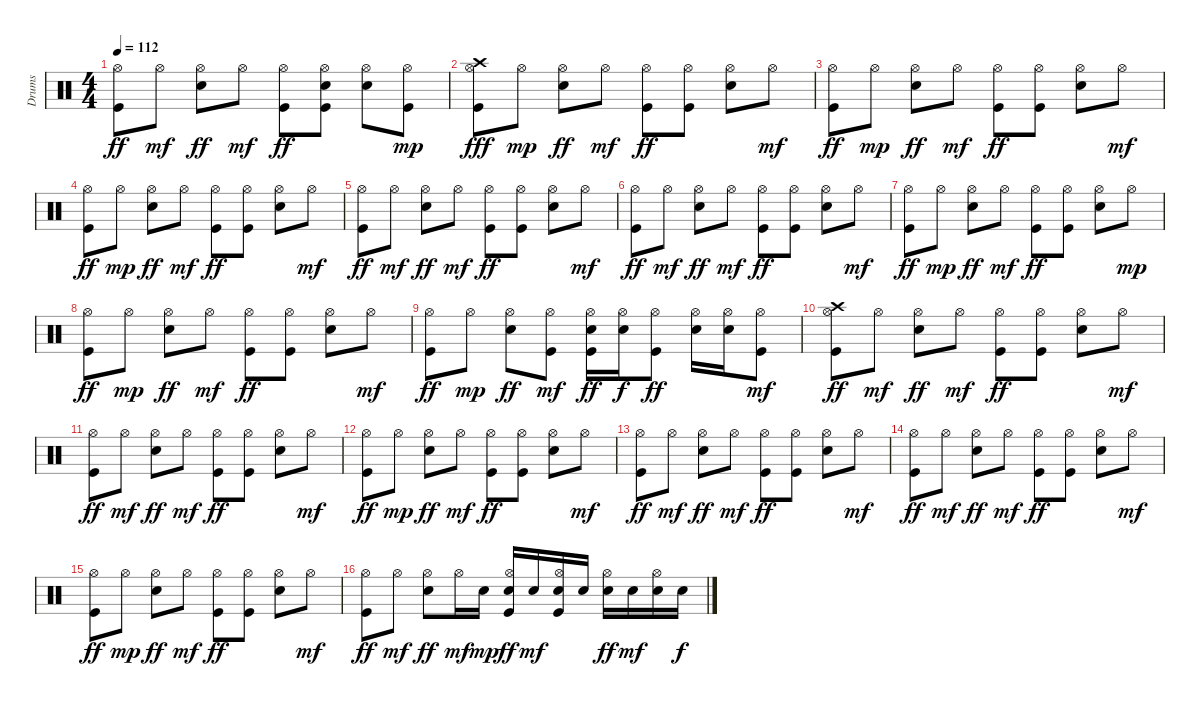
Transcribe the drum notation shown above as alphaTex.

\track ("Drums" "Drums") {instrument percussion}
\staff {score}
\articulation defaults
\ts (4 4)
\tempo 112
\clef neutral
\ks c
("Kick (hit)" "Hi-Hat (open)").8{dy ff} "Hi-Hat (open)".8{dy mf} ("Electric Snare (hit)" "Hi-Hat (open)").8{dy ff} "Hi-Hat (open)".8{dy mf} ("Kick (hit)" "Hi-Hat (open)").8{dy ff} ("Kick (hit)" "Electric Snare (hit)" "Hi-Hat (open)").8 ("Electric Snare (hit)" "Hi-Hat (open)").8 ("Kick (hit)" "Hi-Hat (open)").8{dy mp} |
("Kick (hit)" "Hi-Hat (open)" "Crash high (hit)").8{dy fff} "Hi-Hat (open)".8{dy mp} ("Electric Snare (hit)" "Hi-Hat (open)").8{dy ff} "Hi-Hat (open)".8{dy mf} ("Kick (hit)" "Hi-Hat (open)").8{dy ff} ("Kick (hit)" "Hi-Hat (open)").8 ("Electric Snare (hit)" "Hi-Hat (open)").8 "Hi-Hat (open)".8{dy mf} |
("Kick (hit)" "Hi-Hat (open)").8{dy ff} "Hi-Hat (open)".8{dy mp} ("Electric Snare (hit)" "Hi-Hat (open)").8{dy ff} "Hi-Hat (open)".8{dy mf} ("Kick (hit)" "Hi-Hat (open)").8{dy ff} ("Kick (hit)" "Hi-Hat (open)").8 ("Electric Snare (hit)" "Hi-Hat (open)").8 "Hi-Hat (open)".8{dy mf} |
("Kick (hit)" "Hi-Hat (open)").8{dy ff} "Hi-Hat (open)".8{dy mp} ("Electric Snare (hit)" "Hi-Hat (open)").8{dy ff} "Hi-Hat (open)".8{dy mf} ("Kick (hit)" "Hi-Hat (open)").8{dy ff} ("Kick (hit)" "Hi-Hat (open)").8 ("Electric Snare (hit)" "Hi-Hat (open)").8 "Hi-Hat (open)".8{dy mf} |
("Kick (hit)" "Hi-Hat (open)").8{dy ff} "Hi-Hat (open)".8{dy mf} ("Electric Snare (hit)" "Hi-Hat (open)").8{dy ff} "Hi-Hat (open)".8{dy mf} ("Kick (hit)" "Hi-Hat (open)").8{dy ff} ("Kick (hit)" "Hi-Hat (open)").8 ("Electric Snare (hit)" "Hi-Hat (open)").8 "Hi-Hat (open)".8{dy mf} |
("Kick (hit)" "Hi-Hat (open)").8{dy ff} "Hi-Hat (open)".8{dy mf} ("Electric Snare (hit)" "Hi-Hat (open)").8{dy ff} "Hi-Hat (open)".8{dy mf} ("Kick (hit)" "Hi-Hat (open)").8{dy ff} ("Kick (hit)" "Hi-Hat (open)").8 ("Electric Snare (hit)" "Hi-Hat (open)").8 "Hi-Hat (open)".8{dy mf} |
("Kick (hit)" "Hi-Hat (open)").8{dy ff} "Hi-Hat (open)".8{dy mp} ("Electric Snare (hit)" "Hi-Hat (open)").8{dy ff} "Hi-Hat (open)".8{dy mf} ("Kick (hit)" "Hi-Hat (open)").8{dy ff} ("Kick (hit)" "Hi-Hat (open)").8 ("Electric Snare (hit)" "Hi-Hat (open)").8 "Hi-Hat (open)".8{dy mp} |
("Kick (hit)" "Hi-Hat (open)").8{dy ff} "Hi-Hat (open)".8{dy mp} ("Electric Snare (hit)" "Hi-Hat (open)").8{dy ff} "Hi-Hat (open)".8{dy mf} ("Kick (hit)" "Hi-Hat (open)").8{dy ff} ("Kick (hit)" "Hi-Hat (open)").8 ("Electric Snare (hit)" "Hi-Hat (open)").8 "Hi-Hat (open)".8{dy mf} |
("Kick (hit)" "Hi-Hat (open)").8{dy ff} "Hi-Hat (open)".8{dy mp} ("Electric Snare (hit)" "Hi-Hat (open)").8{dy ff} ("Kick (hit)" "Hi-Hat (open)").8{dy mf} ("Kick (hit)" "Electric Snare (hit)" "Hi-Hat (open)").16{dy ff} ("Electric Snare (hit)" "Hi-Hat (open)").16{dy f} ("Kick (hit)" "Hi-Hat (open)").8{dy ff} ("Electric Snare (hit)" "Hi-Hat (open)").16 ("Electric Snare (hit)" "Hi-Hat (open)").16 ("Kick (hit)" "Hi-Hat (open)").8{dy mf} |
("Kick (hit)" "Hi-Hat (open)" "Crash high (hit)").8{dy ff} "Hi-Hat (open)".8{dy mf} ("Electric Snare (hit)" "Hi-Hat (open)").8{dy ff} "Hi-Hat (open)".8{dy mf} ("Kick (hit)" "Hi-Hat (open)").8{dy ff} ("Kick (hit)" "Hi-Hat (open)").8 ("Electric Snare (hit)" "Hi-Hat (open)").8 "Hi-Hat (open)".8{dy mf} |
("Kick (hit)" "Hi-Hat (open)").8{dy ff} "Hi-Hat (open)".8{dy mf} ("Electric Snare (hit)" "Hi-Hat (open)").8{dy ff} "Hi-Hat (open)".8{dy mf} ("Kick (hit)" "Hi-Hat (open)").8{dy ff} ("Kick (hit)" "Hi-Hat (open)").8 ("Electric Snare (hit)" "Hi-Hat (open)").8 "Hi-Hat (open)".8{dy mf} |
("Kick (hit)" "Hi-Hat (open)").8{dy ff} "Hi-Hat (open)".8{dy mp} ("Electric Snare (hit)" "Hi-Hat (open)").8{dy ff} "Hi-Hat (open)".8{dy mf} ("Kick (hit)" "Hi-Hat (open)").8{dy ff} ("Kick (hit)" "Hi-Hat (open)").8 ("Electric Snare (hit)" "Hi-Hat (open)").8 "Hi-Hat (open)".8{dy mf} |
("Kick (hit)" "Hi-Hat (open)").8{dy ff} "Hi-Hat (open)".8{dy mf} ("Electric Snare (hit)" "Hi-Hat (open)").8{dy ff} "Hi-Hat (open)".8{dy mf} ("Kick (hit)" "Hi-Hat (open)").8{dy ff} ("Kick (hit)" "Hi-Hat (open)").8 ("Electric Snare (hit)" "Hi-Hat (open)").8 "Hi-Hat (open)".8{dy mf} |
("Kick (hit)" "Hi-Hat (open)").8{dy ff} "Hi-Hat (open)".8{dy mf} ("Electric Snare (hit)" "Hi-Hat (open)").8{dy ff} "Hi-Hat (open)".8{dy mf} ("Kick (hit)" "Hi-Hat (open)").8{dy ff} ("Kick (hit)" "Hi-Hat (open)").8 ("Electric Snare (hit)" "Hi-Hat (open)").8 "Hi-Hat (open)".8{dy mf} |
("Kick (hit)" "Hi-Hat (open)").8{dy ff} "Hi-Hat (open)".8{dy mp} ("Electric Snare (hit)" "Hi-Hat (open)").8{dy ff} "Hi-Hat (open)".8{dy mf} ("Kick (hit)" "Hi-Hat (open)").8{dy ff} ("Kick (hit)" "Hi-Hat (open)").8 ("Electric Snare (hit)" "Hi-Hat (open)").8 "Hi-Hat (open)".8{dy mf} |
("Kick (hit)" "Hi-Hat (open)").8{dy ff} "Hi-Hat (open)".8{dy mf} ("Electric Snare (hit)" "Hi-Hat (open)").8{dy ff} "Hi-Hat (open)".16{dy mf} "Electric Snare (hit)".16{dy mp} ("Kick (hit)" "Electric Snare (hit)" "Hi-Hat (open)").16{dy ff} "Electric Snare (hit)".16{dy mf} ("Kick (hit)" "Electric Snare (hit)" "Hi-Hat (open)").16 "Electric Snare (hit)".16 ("Electric Snare (hit)" "Hi-Hat (open)").16{dy ff} "Electric Snare (hit)".16{dy mf} ("Electric Snare (hit)" "Hi-Hat (open)").16 "Electric Snare (hit)".16{dy f}
